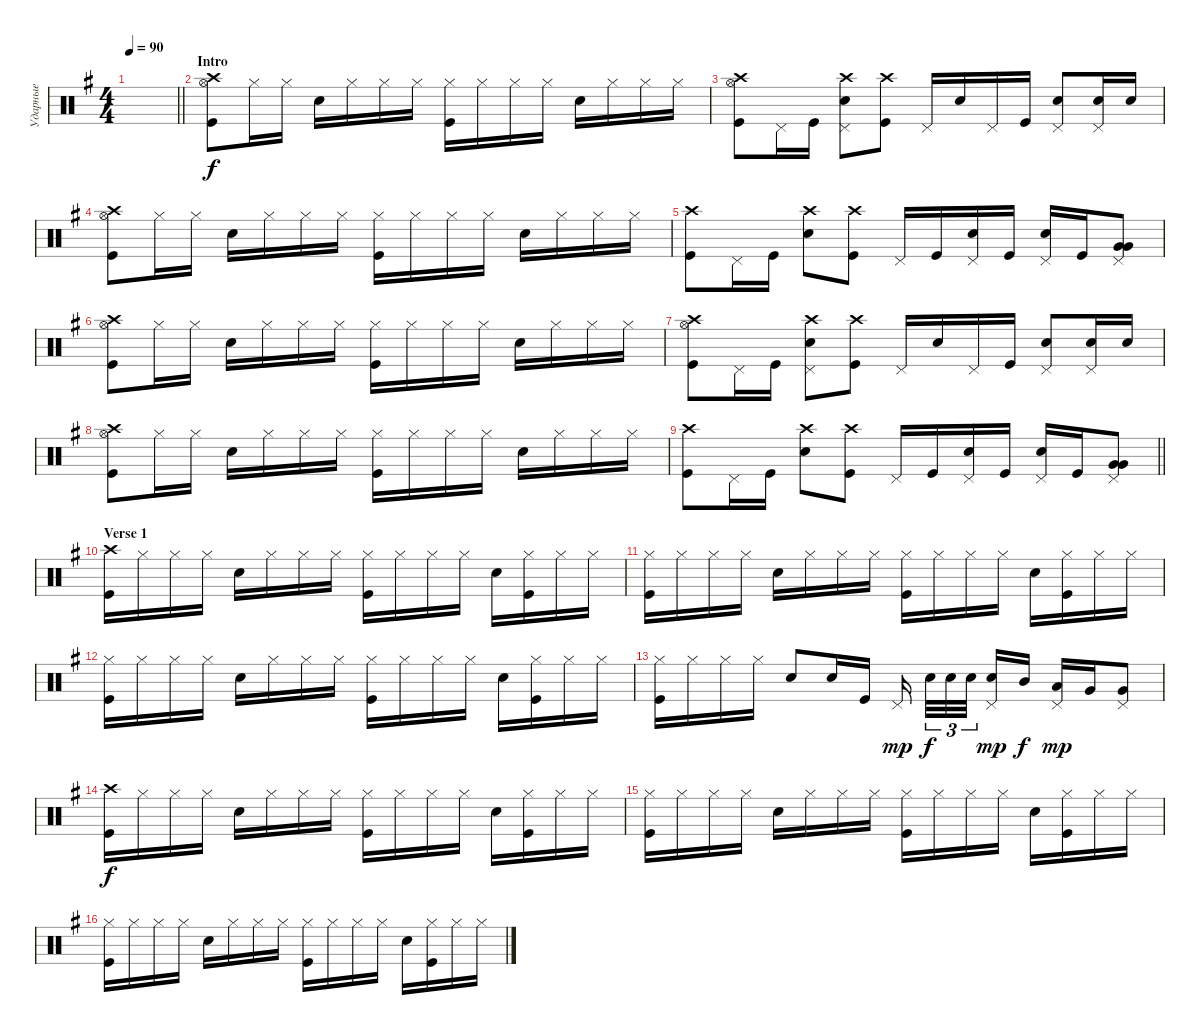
\track ("Ударные" "Ударные") {instrument percussion}
\staff {score}
\articulation defaults
\ts (4 4)
\tempo 90
\clef neutral
\barLineRight lightlight
\ks eminor
|
\section ("" "Intro")
("Kick (hit)" "Crash high (hit)" "Hi-Hat (open)").8 "Hi-Hat (closed)".16 "Hi-Hat (closed)".16 "Snare (hit) 2".16 "Hi-Hat (closed)".16 "Hi-Hat (closed)".16 "Hi-Hat (closed)".16 ("Hi-Hat (closed)" "Kick (hit)").16 "Hi-Hat (closed)".16 "Hi-Hat (closed)".16 "Hi-Hat (closed)".16 "Snare (hit) 2".16 "Hi-Hat (closed)".16 "Hi-Hat (closed)".16 "Hi-Hat (closed)".16 |
("Kick (hit)" "Crash high (hit)" "Hi-Hat (open)").8 "Pedal Hi-Hat (hit)".16 "Kick (hit)".16 ("Crash high (hit)" "Snare (hit) 2" "Pedal Hi-Hat (hit)").8 ("Kick (hit)" "Crash high (hit)").8 "Pedal Hi-Hat (hit)".16 "Snare (hit) 2".16 "Pedal Hi-Hat (hit)".16 "Kick (hit)".16 ("Snare (hit) 2" "Pedal Hi-Hat (hit)").8 ("Snare (hit) 2" "Pedal Hi-Hat (hit)").16 "Snare (hit) 2".16 |
("Kick (hit)" "Crash high (hit)" "Hi-Hat (open)").8 "Hi-Hat (closed)".16 "Hi-Hat (closed)".16 "Snare (hit) 2".16 "Hi-Hat (closed)".16 "Hi-Hat (closed)".16 "Hi-Hat (closed)".16 ("Hi-Hat (closed)" "Kick (hit)").16 "Hi-Hat (closed)".16 "Hi-Hat (closed)".16 "Hi-Hat (closed)".16 "Snare (hit) 2".16 "Hi-Hat (closed)".16 "Hi-Hat (closed)".16 "Hi-Hat (closed)".16 |
("Kick (hit)" "Crash high (hit)").8 "Pedal Hi-Hat (hit)".16 "Kick (hit)".16 ("Crash high (hit)" "Snare (hit) 2").8 ("Kick (hit)" "Crash high (hit)").8 "Pedal Hi-Hat (hit)".16 "Kick (hit)".16 ("Snare (hit) 2" "Pedal Hi-Hat (hit)").16 "Kick (hit)".16 ("Snare (hit) 2" "Pedal Hi-Hat (hit)").16 "Kick (hit)".16 ("Very Low Tom (hit)" "Very Low Tom (hit)" "Pedal Hi-Hat (hit)").8{bd 240} |
("Kick (hit)" "Crash high (hit)" "Hi-Hat (open)").8 "Hi-Hat (closed)".16 "Hi-Hat (closed)".16 "Snare (hit) 2".16 "Hi-Hat (closed)".16 "Hi-Hat (closed)".16 "Hi-Hat (closed)".16 ("Hi-Hat (closed)" "Kick (hit)").16 "Hi-Hat (closed)".16 "Hi-Hat (closed)".16 "Hi-Hat (closed)".16 "Snare (hit) 2".16 "Hi-Hat (closed)".16 "Hi-Hat (closed)".16 "Hi-Hat (closed)".16 |
("Kick (hit)" "Crash high (hit)" "Hi-Hat (open)").8 "Pedal Hi-Hat (hit)".16 "Kick (hit)".16 ("Crash high (hit)" "Snare (hit) 2" "Pedal Hi-Hat (hit)").8 ("Kick (hit)" "Crash high (hit)").8 "Pedal Hi-Hat (hit)".16 "Snare (hit) 2".16 "Pedal Hi-Hat (hit)".16 "Kick (hit)".16 ("Snare (hit) 2" "Pedal Hi-Hat (hit)").8 ("Snare (hit) 2" "Pedal Hi-Hat (hit)").16 "Snare (hit) 2".16 |
("Kick (hit)" "Crash high (hit)" "Hi-Hat (open)").8 "Hi-Hat (closed)".16 "Hi-Hat (closed)".16 "Snare (hit) 2".16 "Hi-Hat (closed)".16 "Hi-Hat (closed)".16 "Hi-Hat (closed)".16 ("Hi-Hat (closed)" "Kick (hit)").16 "Hi-Hat (closed)".16 "Hi-Hat (closed)".16 "Hi-Hat (closed)".16 "Snare (hit) 2".16 "Hi-Hat (closed)".16 "Hi-Hat (closed)".16 "Hi-Hat (closed)".16 |
\barLineRight lightlight
("Kick (hit)" "Crash high (hit)").8 "Pedal Hi-Hat (hit)".16 "Kick (hit)".16 ("Crash high (hit)" "Snare (hit) 2").8 ("Kick (hit)" "Crash high (hit)").8 "Pedal Hi-Hat (hit)".16 "Kick (hit)".16 ("Snare (hit) 2" "Pedal Hi-Hat (hit)").16 "Kick (hit)".16 ("Snare (hit) 2" "Pedal Hi-Hat (hit)").16 "Kick (hit)".16 ("Very Low Tom (hit)" "Very Low Tom (hit)" "Pedal Hi-Hat (hit)").8{bd 240} |
\section ("" "Verse 1")
("Kick (hit)" "Crash high (hit)").16 "Hi-Hat (closed)".16 "Hi-Hat (closed)".16 "Hi-Hat (closed)".16 "Snare (hit) 2".16 "Hi-Hat (closed)".16 "Hi-Hat (closed)".16 "Hi-Hat (closed)".16 ("Kick (hit)" "Hi-Hat (closed)").16 "Hi-Hat (closed)".16 "Hi-Hat (closed)".16 "Hi-Hat (closed)".16 "Snare (hit) 2".16 ("Hi-Hat (closed)" "Kick (hit)").16 "Hi-Hat (closed)".16 "Hi-Hat (closed)".16 |
("Kick (hit)" "Hi-Hat (closed)").16 "Hi-Hat (closed)".16 "Hi-Hat (closed)".16 "Hi-Hat (closed)".16 "Snare (hit) 2".16 "Hi-Hat (closed)".16 "Hi-Hat (closed)".16 "Hi-Hat (closed)".16 ("Kick (hit)" "Hi-Hat (closed)").16 "Hi-Hat (closed)".16 "Hi-Hat (closed)".16 "Hi-Hat (closed)".16 "Snare (hit) 2".16 ("Hi-Hat (closed)" "Kick (hit)").16 "Hi-Hat (closed)".16 "Hi-Hat (closed)".16 |
("Kick (hit)" "Hi-Hat (closed)").16 "Hi-Hat (closed)".16 "Hi-Hat (closed)".16 "Hi-Hat (closed)".16 "Snare (hit) 2".16 "Hi-Hat (closed)".16 "Hi-Hat (closed)".16 "Hi-Hat (closed)".16 ("Kick (hit)" "Hi-Hat (closed)").16 "Hi-Hat (closed)".16 "Hi-Hat (closed)".16 "Hi-Hat (closed)".16 "Snare (hit) 2".16 ("Hi-Hat (closed)" "Kick (hit)").16 "Hi-Hat (closed)".16 "Hi-Hat (closed)".16 |
("Kick (hit)" "Hi-Hat (closed)").16 "Hi-Hat (closed)".16 "Hi-Hat (closed)".16 "Hi-Hat (closed)".16 "Snare (hit) 2".8 "Snare (hit) 2".16 "Kick (hit)".16 "Pedal Hi-Hat (hit)".16{dy mp beam splitsecondary} "Snare (hit) 2".32{tu (3 2) dy f} "Snare (hit) 2".32{tu (3 2)} "Snare (hit) 2".32{tu (3 2) beam splitsecondary} ("Snare (hit) 2" "Pedal Hi-Hat (hit)").16{dy mp} "Mid Tom (hit)".16{dy f} ("Low Tom (hit)" "Pedal Hi-Hat (hit)").16{dy mp} "Very Low Tom (hit)".16 ("Very Low Tom (hit)" "Pedal Hi-Hat (hit)").8 |
("Kick (hit)" "Crash high (hit)").16{dy f} "Hi-Hat (closed)".16 "Hi-Hat (closed)".16 "Hi-Hat (closed)".16 "Snare (hit) 2".16 "Hi-Hat (closed)".16 "Hi-Hat (closed)".16 "Hi-Hat (closed)".16 ("Kick (hit)" "Hi-Hat (closed)").16 "Hi-Hat (closed)".16 "Hi-Hat (closed)".16 "Hi-Hat (closed)".16 "Snare (hit) 2".16 ("Hi-Hat (closed)" "Kick (hit)").16 "Hi-Hat (closed)".16 "Hi-Hat (closed)".16 |
("Kick (hit)" "Hi-Hat (closed)").16 "Hi-Hat (closed)".16 "Hi-Hat (closed)".16 "Hi-Hat (closed)".16 "Snare (hit) 2".16 "Hi-Hat (closed)".16 "Hi-Hat (closed)".16 "Hi-Hat (closed)".16 ("Kick (hit)" "Hi-Hat (closed)").16 "Hi-Hat (closed)".16 "Hi-Hat (closed)".16 "Hi-Hat (closed)".16 "Snare (hit) 2".16 ("Hi-Hat (closed)" "Kick (hit)").16 "Hi-Hat (closed)".16 "Hi-Hat (closed)".16 |
("Kick (hit)" "Hi-Hat (closed)").16 "Hi-Hat (closed)".16 "Hi-Hat (closed)".16 "Hi-Hat (closed)".16 "Snare (hit) 2".16 "Hi-Hat (closed)".16 "Hi-Hat (closed)".16 "Hi-Hat (closed)".16 ("Kick (hit)" "Hi-Hat (closed)").16 "Hi-Hat (closed)".16 "Hi-Hat (closed)".16 "Hi-Hat (closed)".16 "Snare (hit) 2".16 ("Hi-Hat (closed)" "Kick (hit)").16 "Hi-Hat (closed)".16 "Hi-Hat (closed)".16
